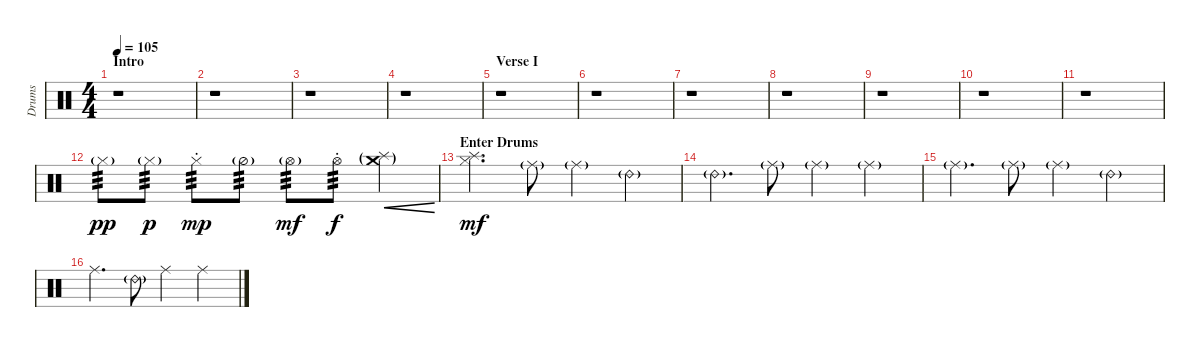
\defaultSystemsLayout 4
\otherSystemsTrackNameOrientation horizontal
\chordDiagramsInScore
\track ("Drumkit" "Drums") {instrument percussion}
\staff {score}
\articulation defaults
\ts (4 4)
\section ("" "Intro")
\tempo 105
\clef neutral
\scale
0.631206
\ks c
r.1{dy pp} |
\scale
0.368794 r.1 |
\scale
0.5 r.1 |
\scale
0.5 r.1 |
\section ("" "Verse I")
\scale
0.5 r.1 |
\scale
0.5 r.1 |
\scale
0.5 r.1 |
\scale
0.5 r.1 |
\scale
0.5 r.1 |
\scale
0.5 r.1 |
\scale
0.5 r.1 |
\scale
0.5 "Hi-Hat (closed)"{g}.8{tp 3} "Hi-Hat (closed)"{g}.8{tp 3 dy p} "Hi-Hat (closed)"{st}.8{tp 3 dy mp} "Hi-Hat (half)"{g}.8{tp 3} "Hi-Hat (open)"{g}.8{tp 3 dy mf} "Hi-Hat (open)"{st}.8{tp 3 dy f} ("Splash (hit)"{g} "Crash medium (hit)"{g}).4{cre} |
\section ("" "Enter Drums")
\scale
0.5 ("Hi-Hat (closed)" "Splash (hit)").4{d dy mf} "Ride (middle)"{g}.8 "Ride (middle)"{g}.4 "Ride (bell) 2"{g}.4 |
\scale
0.5 "Ride (bell) 2"{g}.4{d} "Ride (middle)"{g}.8 "Ride (middle)"{g}.4 "Ride (middle)"{g}.4 |
\scale
0.5 "Ride (middle)"{g}.4{d} "Ride (middle)"{g}.8 "Ride (middle)"{g}.4 "Ride (bell) 2"{g}.4 |
\scale
0.5 "Ride (middle)".4{d} "Ride (bell) 2"{g}.8 "Ride (middle)".4 "Ride (middle)".4
